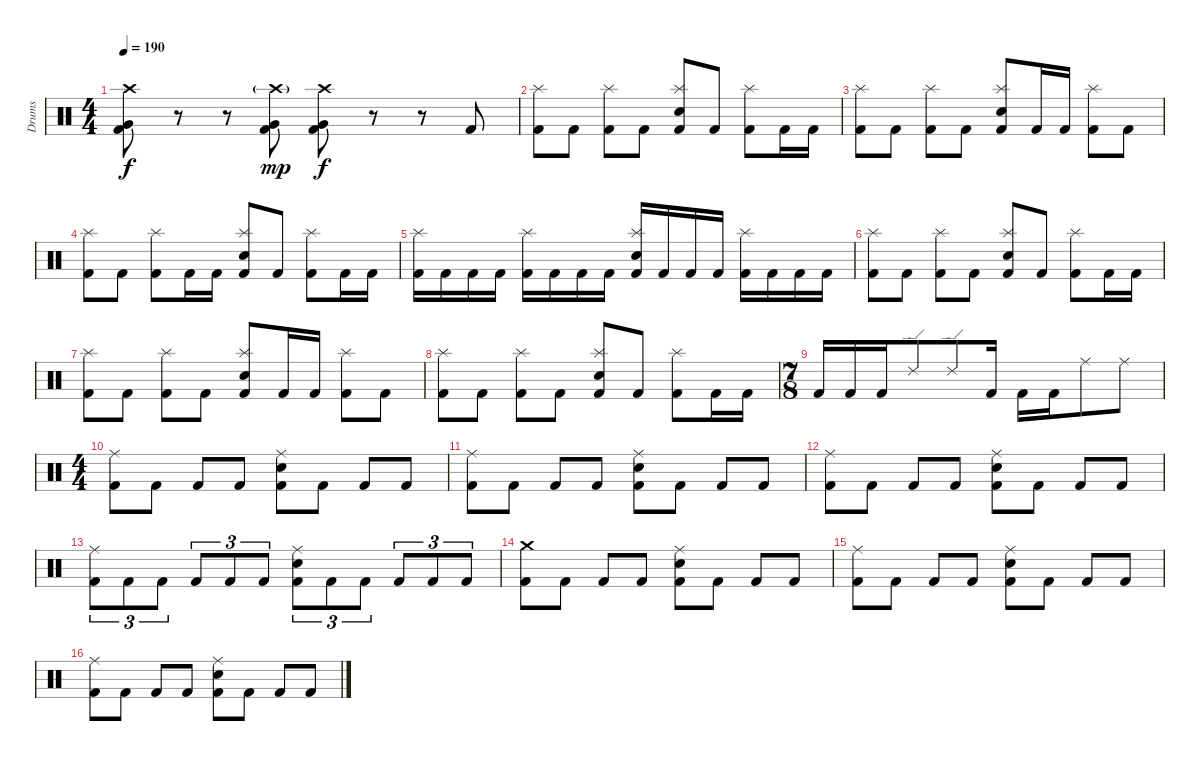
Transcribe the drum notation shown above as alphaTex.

\track ("Drums" "Drums") {instrument percussion}
\staff {score}
\articulation defaults
\ts (4 4)
\tempo 190
\clef neutral
\ks c
("Crash high (hit)" "Very Low Tom (hit)" "Kick (hit) 2").8{dy f} r.8 r.8 ("Crash high (hit)"{g} "Very Low Tom (hit)" "Kick (hit) 2").8{dy mp} ("Crash high (hit)" "Very Low Tom (hit)" "Kick (hit) 2").8{dy f} r.8 r.8 "Kick (hit) 2".8 |
("Splash (hit)" "Kick (hit) 2").8 "Kick (hit) 2".8 ("Splash (hit)" "Kick (hit) 2").8 "Kick (hit) 2".8 ("Splash (hit)" "Snare (hit) 2" "Kick (hit) 2").8 "Kick (hit) 2".8 ("Splash (hit)" "Kick (hit) 2").8 "Kick (hit) 2".16 "Kick (hit) 2".16 |
("Splash (hit)" "Kick (hit) 2").8 "Kick (hit) 2".8 ("Splash (hit)" "Kick (hit) 2").8 "Kick (hit) 2".8 ("Splash (hit)" "Snare (hit) 2" "Kick (hit) 2").8 "Kick (hit) 2".16 "Kick (hit) 2".16 ("Splash (hit)" "Kick (hit) 2").8 "Kick (hit) 2".8 |
("Splash (hit)" "Kick (hit) 2").8 "Kick (hit) 2".8 ("Splash (hit)" "Kick (hit) 2").8 "Kick (hit) 2".16 "Kick (hit) 2".16 ("Splash (hit)" "Snare (hit) 2" "Kick (hit) 2").8 "Kick (hit) 2".8 ("Splash (hit)" "Kick (hit) 2").8 "Kick (hit) 2".16 "Kick (hit) 2".16 |
("Splash (hit)" "Kick (hit) 2").16 "Kick (hit) 2".16 "Kick (hit) 2".16 "Kick (hit) 2".16 ("Splash (hit)" "Kick (hit) 2").16 "Kick (hit) 2".16 "Kick (hit) 2".16 "Kick (hit) 2".16 ("Splash (hit)" "Snare (hit) 2" "Kick (hit) 2").16 "Kick (hit) 2".16 "Kick (hit) 2".16 "Kick (hit) 2".16 ("Splash (hit)" "Kick (hit) 2").16 "Kick (hit) 2".16 "Kick (hit) 2".16 "Kick (hit) 2".16 |
("Splash (hit)" "Kick (hit) 2").8 "Kick (hit) 2".8 ("Splash (hit)" "Kick (hit) 2").8 "Kick (hit) 2".8 ("Splash (hit)" "Snare (hit) 2" "Kick (hit) 2").8 "Kick (hit) 2".8 ("Splash (hit)" "Kick (hit) 2").8 "Kick (hit) 2".16 "Kick (hit) 2".16 |
("Splash (hit)" "Kick (hit) 2").8 "Kick (hit) 2".8 ("Splash (hit)" "Kick (hit) 2").8 "Kick (hit) 2".8 ("Splash (hit)" "Snare (hit) 2" "Kick (hit) 2").8 "Kick (hit) 2".16 "Kick (hit) 2".16 ("Splash (hit)" "Kick (hit) 2").8 "Kick (hit) 2".8 |
("Splash (hit)" "Kick (hit) 2").8 "Kick (hit) 2".8 ("Splash (hit)" "Kick (hit) 2").8 "Kick (hit) 2".8 ("Splash (hit)" "Snare (hit) 2" "Kick (hit) 2").8 "Kick (hit) 2".8 ("Splash (hit)" "Kick (hit) 2").8 "Kick (hit) 2".16 "Kick (hit) 2".16 |
\ts (7 8)
"Kick (hit) 2".16 "Kick (hit) 2".16 "Kick (hit) 2".16 "Ride (edge) 2".8 "Ride (edge) 2".8 "Kick (hit) 2".16 "Kick (hit) 2".16 "Kick (hit) 2".16 "Ride (middle)".8 "Ride (middle)".8 |
\ts (4 4)
("Ride (middle)" "Kick (hit) 2").8 "Kick (hit) 2".8 "Kick (hit) 2".8 "Kick (hit) 2".8 ("Ride (middle)" "Snare (hit) 2" "Kick (hit) 2").8 "Kick (hit) 2".8 "Kick (hit) 2".8 "Kick (hit) 2".8 |
("Ride (middle)" "Kick (hit) 2").8 "Kick (hit) 2".8 "Kick (hit) 2".8 "Kick (hit) 2".8 ("Ride (middle)" "Snare (hit) 2" "Kick (hit) 2").8 "Kick (hit) 2".8 "Kick (hit) 2".8 "Kick (hit) 2".8 |
("Ride (middle)" "Kick (hit) 2").8 "Kick (hit) 2".8 "Kick (hit) 2".8 "Kick (hit) 2".8 ("Ride (middle)" "Snare (hit) 2" "Kick (hit) 2").8 "Kick (hit) 2".8 "Kick (hit) 2".8 "Kick (hit) 2".8 |
("Ride (middle)" "Kick (hit) 2").8{tu (3 2)} "Kick (hit) 2".8{tu (3 2)} "Kick (hit) 2".8{tu (3 2)} "Kick (hit) 2".8{tu (3 2)} "Kick (hit) 2".8{tu (3 2)} "Kick (hit) 2".8{tu (3 2)} ("Ride (middle)" "Snare (hit) 2" "Kick (hit) 2").8{tu (3 2)} "Kick (hit) 2".8{tu (3 2)} "Kick (hit) 2".8{tu (3 2)} "Kick (hit) 2".8{tu (3 2)} "Kick (hit) 2".8{tu (3 2)} "Kick (hit) 2".8{tu (3 2)} |
("Crash medium (hit)" "Kick (hit) 2").8 "Kick (hit) 2".8 "Kick (hit) 2".8 "Kick (hit) 2".8 ("Ride (middle)" "Snare (hit) 2" "Kick (hit) 2").8 "Kick (hit) 2".8 "Kick (hit) 2".8 "Kick (hit) 2".8 |
("Ride (middle)" "Kick (hit) 2").8 "Kick (hit) 2".8 "Kick (hit) 2".8 "Kick (hit) 2".8 ("Ride (middle)" "Snare (hit) 2" "Kick (hit) 2").8 "Kick (hit) 2".8 "Kick (hit) 2".8 "Kick (hit) 2".8 |
("Ride (middle)" "Kick (hit) 2").8 "Kick (hit) 2".8 "Kick (hit) 2".8 "Kick (hit) 2".8 ("Ride (middle)" "Snare (hit) 2" "Kick (hit) 2").8 "Kick (hit) 2".8 "Kick (hit) 2".8 "Kick (hit) 2".8
